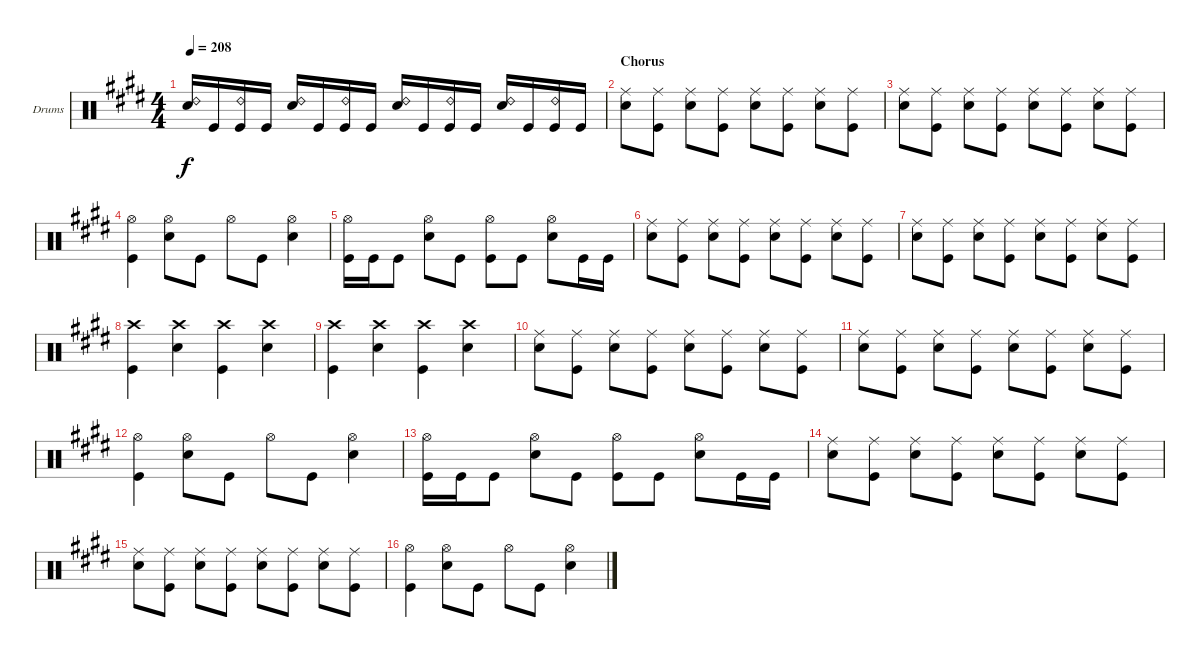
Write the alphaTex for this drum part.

\defaultSystemsLayout 4
\bracketExtendMode groupsimilarinstruments
\firstSystemTrackNameOrientation horizontal
\otherSystemsTrackNameOrientation horizontal
\track ("Corey Friedlander - Drums" "Drums") {instrument percussion}
\staff {score}
\articulation defaults
\ts (4 4)
\tempo 208
\clef neutral
\ks c#minor
("Snare (hit) 2" "Ride (bell) 2").16{dy f} "Kick (hit)".16 ("Kick (hit)" "Ride (bell) 2").16 "Kick (hit)".16 ("Snare (hit) 2" "Ride (bell) 2").16 "Kick (hit)".16 ("Kick (hit)" "Ride (bell) 2").16 "Kick (hit)".16 ("Snare (hit) 2" "Ride (bell) 2").16 "Kick (hit)".16 ("Kick (hit)" "Ride (bell) 2").16 "Kick (hit)".16 ("Snare (hit) 2" "Ride (bell) 2").16 "Kick (hit)".16 ("Kick (hit)" "Ride (bell) 2").16 "Kick (hit)".16 |
\section ("" "Chorus")
("Snare (hit) 2" "Ride (middle)").8 ("Kick (hit)" "Ride (middle)").8 ("Snare (hit) 2" "Ride (middle)").8 ("Kick (hit)" "Ride (middle)").8 ("Snare (hit) 2" "Ride (middle)").8 ("Kick (hit)" "Ride (middle)").8 ("Snare (hit) 2" "Ride (middle)").8 ("Kick (hit)" "Ride (middle)").8 |
("Snare (hit) 2" "Ride (middle)").8 ("Kick (hit)" "Ride (middle)").8 ("Snare (hit) 2" "Ride (middle)").8 ("Kick (hit)" "Ride (middle)").8 ("Snare (hit) 2" "Ride (middle)").8 ("Kick (hit)" "Ride (middle)").8 ("Snare (hit) 2" "Ride (middle)").8 ("Kick (hit)" "Ride (middle)").8 |
("Kick (hit)" "Hi-Hat (open)").4 ("Snare (hit) 2" "Hi-Hat (open)").8 "Kick (hit)".8 "Hi-Hat (open)".8 "Kick (hit)".8 ("Snare (hit) 2" "Hi-Hat (open)").4 |
("Kick (hit)" "Hi-Hat (open)").16 "Kick (hit)".16 "Kick (hit)".8 ("Snare (hit) 2" "Hi-Hat (open)").8 "Kick (hit)".8 ("Kick (hit)" "Hi-Hat (open)").8 "Kick (hit)".8 ("Snare (hit) 2" "Hi-Hat (open)").8 "Kick (hit)".16 "Kick (hit)".16 |
("Snare (hit) 2" "Ride (middle)").8 ("Kick (hit)" "Ride (middle)").8 ("Snare (hit) 2" "Ride (middle)").8 ("Kick (hit)" "Ride (middle)").8 ("Snare (hit) 2" "Ride (middle)").8 ("Kick (hit)" "Ride (middle)").8 ("Snare (hit) 2" "Ride (middle)").8 ("Kick (hit)" "Ride (middle)").8 |
("Snare (hit) 2" "Ride (middle)").8 ("Kick (hit)" "Ride (middle)").8 ("Snare (hit) 2" "Ride (middle)").8 ("Kick (hit)" "Ride (middle)").8 ("Snare (hit) 2" "Ride (middle)").8 ("Kick (hit)" "Ride (middle)").8 ("Snare (hit) 2" "Ride (middle)").8 ("Kick (hit)" "Ride (middle)").8 |
("Kick (hit)" "Crash high (hit)").4 ("Snare (hit) 2" "Crash high (hit)").4 ("Kick (hit)" "Crash high (hit)").4 ("Snare (hit) 2" "Crash high (hit)").4 |
("Kick (hit)" "Crash high (hit)").4 ("Snare (hit) 2" "Crash high (hit)").4 ("Kick (hit)" "Crash high (hit)").4 ("Snare (hit) 2" "Crash high (hit)").4 |
("Snare (hit) 2" "Ride (middle)").8 ("Kick (hit)" "Ride (middle)").8 ("Snare (hit) 2" "Ride (middle)").8 ("Kick (hit)" "Ride (middle)").8 ("Snare (hit) 2" "Ride (middle)").8 ("Kick (hit)" "Ride (middle)").8 ("Snare (hit) 2" "Ride (middle)").8 ("Kick (hit)" "Ride (middle)").8 |
("Snare (hit) 2" "Ride (middle)").8 ("Kick (hit)" "Ride (middle)").8 ("Snare (hit) 2" "Ride (middle)").8 ("Kick (hit)" "Ride (middle)").8 ("Snare (hit) 2" "Ride (middle)").8 ("Kick (hit)" "Ride (middle)").8 ("Snare (hit) 2" "Ride (middle)").8 ("Kick (hit)" "Ride (middle)").8 |
("Kick (hit)" "Hi-Hat (open)").4 ("Snare (hit) 2" "Hi-Hat (open)").8 "Kick (hit)".8 "Hi-Hat (open)".8 "Kick (hit)".8 ("Snare (hit) 2" "Hi-Hat (open)").4 |
("Kick (hit)" "Hi-Hat (open)").16 "Kick (hit)".16 "Kick (hit)".8 ("Snare (hit) 2" "Hi-Hat (open)").8 "Kick (hit)".8 ("Kick (hit)" "Hi-Hat (open)").8 "Kick (hit)".8 ("Snare (hit) 2" "Hi-Hat (open)").8 "Kick (hit)".16 "Kick (hit)".16 |
("Snare (hit) 2" "Ride (middle)").8 ("Kick (hit)" "Ride (middle)").8 ("Snare (hit) 2" "Ride (middle)").8 ("Kick (hit)" "Ride (middle)").8 ("Snare (hit) 2" "Ride (middle)").8 ("Kick (hit)" "Ride (middle)").8 ("Snare (hit) 2" "Ride (middle)").8 ("Kick (hit)" "Ride (middle)").8 |
("Snare (hit) 2" "Ride (middle)").8 ("Kick (hit)" "Ride (middle)").8 ("Snare (hit) 2" "Ride (middle)").8 ("Kick (hit)" "Ride (middle)").8 ("Snare (hit) 2" "Ride (middle)").8 ("Kick (hit)" "Ride (middle)").8 ("Snare (hit) 2" "Ride (middle)").8 ("Kick (hit)" "Ride (middle)").8 |
("Kick (hit)" "Hi-Hat (open)").4 ("Snare (hit) 2" "Hi-Hat (open)").8 "Kick (hit)".8 "Hi-Hat (open)".8 "Kick (hit)".8 ("Snare (hit) 2" "Hi-Hat (open)").4
